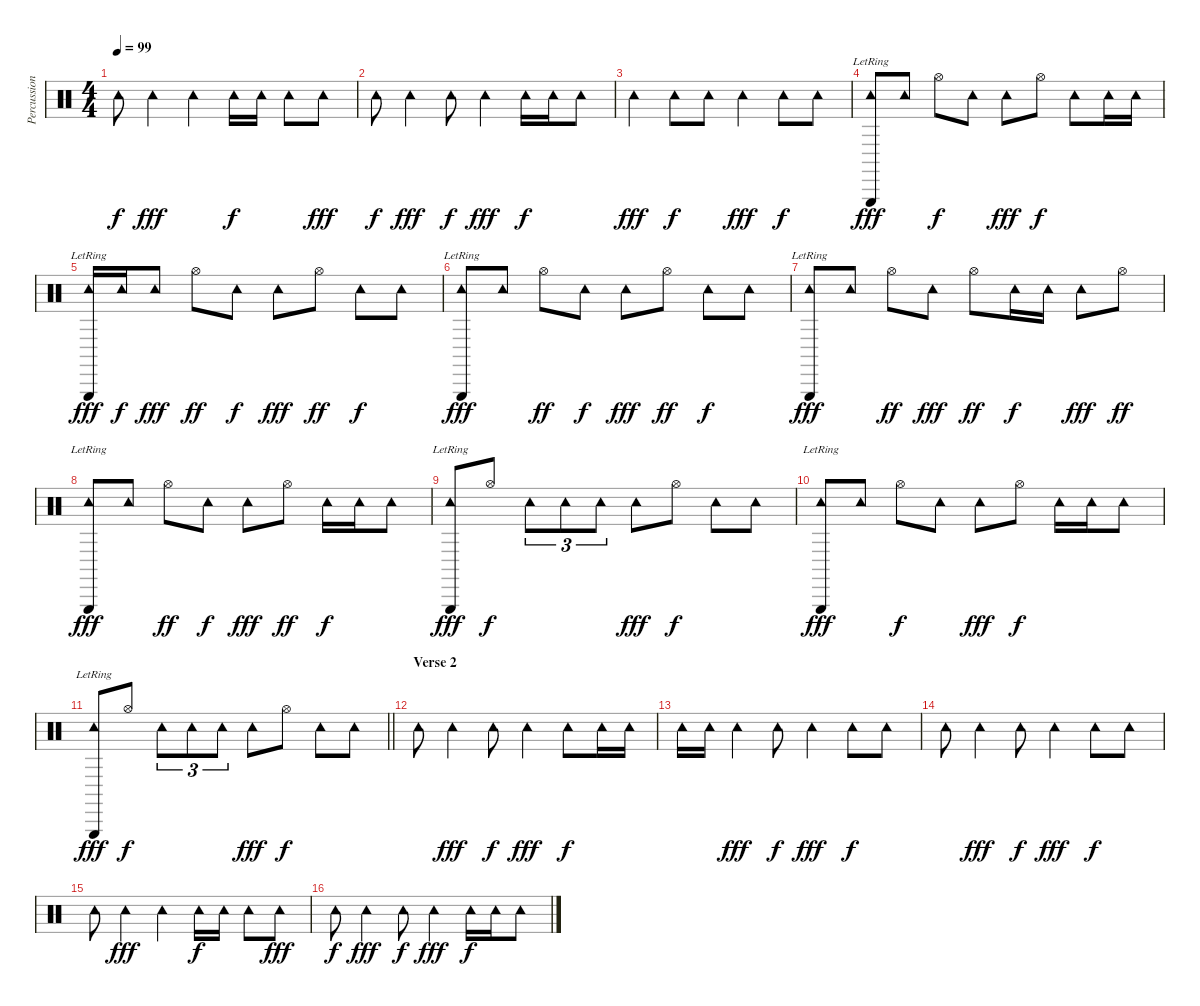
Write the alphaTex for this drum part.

\track ("Percussion" "Percussion") {instrument percussion}
\staff {score}
\articulation defaults
\ts (4 4)
\tempo 99
\clef neutral
\ks c "Tambourine (hit)".8{dy f} "Tambourine (hit)".4{dy fff} "Tambourine (hit)".4 "Tambourine (hit)".16{dy f} "Tambourine (hit)".16 "Tambourine (hit)".8 "Tambourine (hit)".8{dy fff}
|
"Tambourine (hit)".8{dy f} "Tambourine (hit)".4{dy fff} "Tambourine (hit)".8{dy f} "Tambourine (hit)".4{dy fff} "Tambourine (hit)".16{dy f} "Tambourine (hit)".16 "Tambourine (hit)".8 |
"Tambourine (hit)".4{dy fff} "Tambourine (hit)".8{dy f} "Tambourine (hit)".8 "Tambourine (hit)".4{dy fff} "Tambourine (hit)".8{dy f} "Tambourine (hit)".8 |
("Tambourine (hit)" "Triangle (hit)"{lr}).8{dy fff} "Tambourine (hit)".8 "Hi-Hat (open)".8{dy f} "Tambourine (hit)".8 "Tambourine (hit)".8{dy fff} "Hi-Hat (open)".8{dy f} "Tambourine (hit)".8 "Tambourine (hit)".16 "Tambourine (hit)".16 |
("Tambourine (hit)" "Triangle (hit)"{lr}).16{dy fff} "Tambourine (hit)".16{dy f} "Tambourine (hit)".8{dy fff} "Hi-Hat (open)".8{dy ff} "Tambourine (hit)".8{dy f} "Tambourine (hit)".8{dy fff} "Hi-Hat (open)".8{dy ff} "Tambourine (hit)".8{dy f} "Tambourine (hit)".8 |
("Tambourine (hit)" "Triangle (hit)"{lr}).8{dy fff} "Tambourine (hit)".8 "Hi-Hat (open)".8{dy ff} "Tambourine (hit)".8{dy f} "Tambourine (hit)".8{dy fff} "Hi-Hat (open)".8{dy ff} "Tambourine (hit)".8{dy f} "Tambourine (hit)".8 |
("Tambourine (hit)" "Triangle (hit)"{lr}).8{dy fff} "Tambourine (hit)".8 "Hi-Hat (open)".8{dy ff} "Tambourine (hit)".8{dy fff} "Hi-Hat (open)".8{dy ff} "Tambourine (hit)".16{dy f} "Tambourine (hit)".16 "Tambourine (hit)".8{dy fff} "Hi-Hat (open)".8{dy ff} |
("Tambourine (hit)" "Triangle (hit)"{lr}).8{dy fff} "Tambourine (hit)".8 "Hi-Hat (open)".8{dy ff} "Tambourine (hit)".8{dy f} "Tambourine (hit)".8{dy fff} "Hi-Hat (open)".8{dy ff} "Tambourine (hit)".16{dy f} "Tambourine (hit)".16 "Tambourine (hit)".8 |
("Tambourine (hit)" "Triangle (hit)"{lr}).8{dy fff} "Hi-Hat (open)".8{dy f} "Tambourine (hit)".8{tu (3 2)} "Tambourine (hit)".8{tu (3 2)} "Tambourine (hit)".8{tu (3 2)} "Tambourine (hit)".8{dy fff} "Hi-Hat (open)".8{dy f} "Tambourine (hit)".8 "Tambourine (hit)".8 |
("Tambourine (hit)" "Triangle (hit)"{lr}).8{dy fff} "Tambourine (hit)".8 "Hi-Hat (open)".8{dy f} "Tambourine (hit)".8 "Tambourine (hit)".8{dy fff} "Hi-Hat (open)".8{dy f} "Tambourine (hit)".16 "Tambourine (hit)".16 "Tambourine (hit)".8 |
\barLineRight lightlight
("Tambourine (hit)" "Triangle (hit)"{lr}).8{dy fff} "Hi-Hat (open)".8{dy f} "Tambourine (hit)".8{tu (3 2)} "Tambourine (hit)".8{tu (3 2)} "Tambourine (hit)".8{tu (3 2)} "Tambourine (hit)".8{dy fff} "Hi-Hat (open)".8{dy f} "Tambourine (hit)".8 "Tambourine (hit)".8 |
\section ("" "Verse 2")
"Tambourine (hit)".8 "Tambourine (hit)".4{dy fff} "Tambourine (hit)".8{dy f} "Tambourine (hit)".4{dy fff} "Tambourine (hit)".8{dy f} "Tambourine (hit)".16 "Tambourine (hit)".16 |
"Tambourine (hit)".16 "Tambourine (hit)".16 "Tambourine (hit)".4{dy fff} "Tambourine (hit)".8{dy f} "Tambourine (hit)".4{dy fff} "Tambourine (hit)".8{dy f} "Tambourine (hit)".8 |
"Tambourine (hit)".8 "Tambourine (hit)".4{dy fff} "Tambourine (hit)".8{dy f} "Tambourine (hit)".4{dy fff} "Tambourine (hit)".8{dy f} "Tambourine (hit)".8 |
"Tambourine (hit)".8 "Tambourine (hit)".4{dy fff} "Tambourine (hit)".4 "Tambourine (hit)".16{dy f} "Tambourine (hit)".16 "Tambourine (hit)".8 "Tambourine (hit)".8{dy fff} |
"Tambourine (hit)".8{dy f} "Tambourine (hit)".4{dy fff} "Tambourine (hit)".8{dy f} "Tambourine (hit)".4{dy fff} "Tambourine (hit)".16{dy f} "Tambourine (hit)".16 "Tambourine (hit)".8
